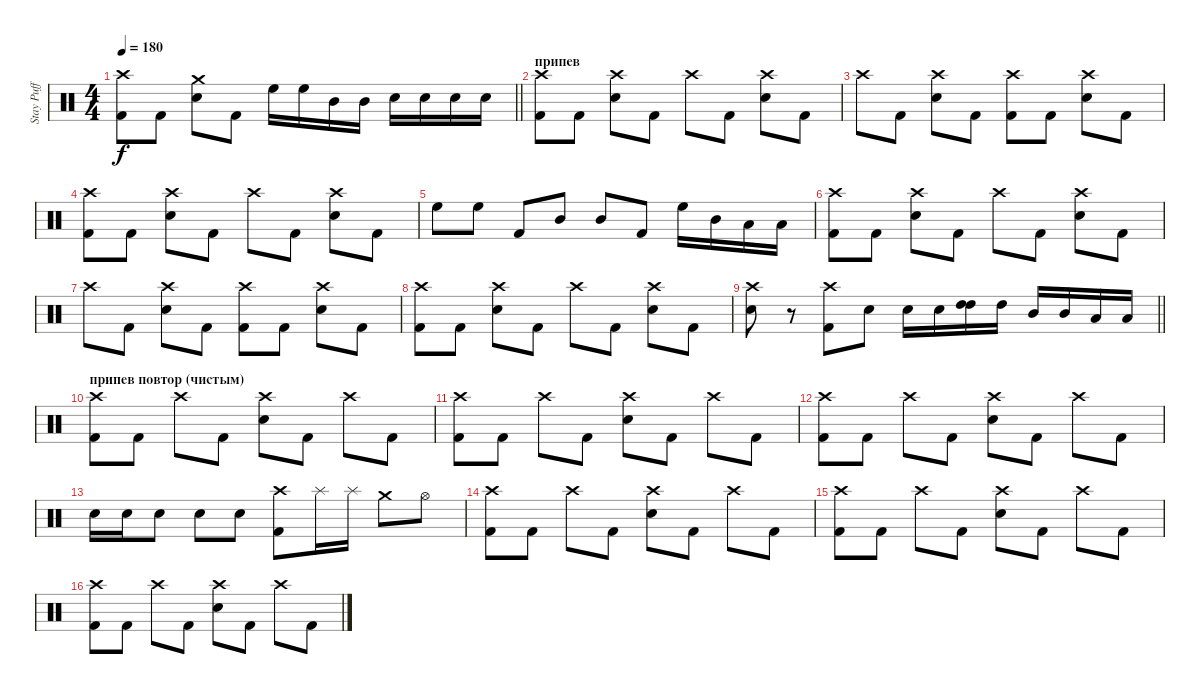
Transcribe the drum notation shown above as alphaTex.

\track ("Stay Puff" "Stay Puff") {instrument percussion}
\staff {score}
\articulation defaults
\ts (4 4)
\tempo 180
\clef neutral
\barLineRight lightlight
\ks c
("Crash high (hit)" "Kick (hit) 2").8{dy f} "Kick (hit) 2".8 ("Crash medium (hit)" "Snare (hit) 2").8 "Kick (hit) 2".8 "High Floor Tom (hit)".16 "High Floor Tom (hit)".16 "Mid Tom (hit)".16 "Mid Tom (hit)".16 "Snare (hit) 2".16 "Snare (hit) 2".16 "Snare (hit) 2".16 "Snare (hit) 2".16 |
\section ("" "припев")
("Crash high (hit)" "Kick (hit) 2").8 "Kick (hit) 2".8 ("Crash high (hit)" "Snare (hit) 2").8 "Kick (hit) 2".8 "Crash high (hit)".8 "Kick (hit) 2".8 ("Crash high (hit)" "Snare (hit) 2").8 "Kick (hit) 2".8 |
"Crash high (hit)".8 "Kick (hit) 2".8 ("Crash high (hit)" "Snare (hit) 2").8 "Kick (hit) 2".8 ("Crash high (hit)" "Kick (hit) 2").8 "Kick (hit) 2".8 ("Crash high (hit)" "Snare (hit) 2").8 "Kick (hit) 2".8 |
("Crash high (hit)" "Kick (hit) 2").8 "Kick (hit) 2".8 ("Crash high (hit)" "Snare (hit) 2").8 "Kick (hit) 2".8 "Crash high (hit)".8 "Kick (hit) 2".8 ("Crash high (hit)" "Snare (hit) 2").8 "Kick (hit) 2".8 |
"High Floor Tom (hit)".8 "High Floor Tom (hit)".8 "Kick (hit) 2".8 "Mid Tom (hit)".8 "Mid Tom (hit)".8 "Kick (hit) 2".8 "High Floor Tom (hit)".16 "Mid Tom (hit)".16 "Low Tom (hit)".16 "Low Floor Tom (hit)".16 |
("Crash high (hit)" "Kick (hit) 2").8 "Kick (hit) 2".8 ("Crash high (hit)" "Snare (hit) 2").8 "Kick (hit) 2".8 "Crash high (hit)".8 "Kick (hit) 2".8 ("Crash high (hit)" "Snare (hit) 2").8 "Kick (hit) 2".8 |
"Crash high (hit)".8 "Kick (hit) 2".8 ("Crash high (hit)" "Snare (hit) 2").8 "Kick (hit) 2".8 ("Crash high (hit)" "Kick (hit) 2").8 "Kick (hit) 2".8 ("Crash high (hit)" "Snare (hit) 2").8 "Kick (hit) 2".8 |
("Crash high (hit)" "Kick (hit) 2").8 "Kick (hit) 2".8 ("Crash high (hit)" "Snare (hit) 2").8 "Kick (hit) 2".8 "Crash high (hit)".8 "Kick (hit) 2".8 ("Crash high (hit)" "Snare (hit) 2").8 "Kick (hit) 2".8 |
\barLineRight lightlight
("Crash high (hit)" "Snare (hit) 2").8 r.8 ("Crash high (hit)" "Kick (hit) 2").8 "Snare (hit) 2".8 "Electric Snare (hit)".16 "Electric Snare (hit)".16 ("High Tom (hit)" "High Tom (hit)").16 "High Tom (hit)".16 "Mid Tom (hit)".16 "Mid Tom (hit)".16 "Low Tom (hit)".16 "Low Tom (hit)".16 |
\section ("" "припев повтор (чистым)")
("Crash high (hit)" "Kick (hit) 2").8 "Kick (hit) 2".8 "Crash high (hit)".8 "Kick (hit) 2".8 ("Crash high (hit)" "Electric Snare (hit)").8 "Kick (hit) 2".8 "Crash high (hit)".8 "Kick (hit) 2".8 |
("Crash high (hit)" "Kick (hit) 2").8 "Kick (hit) 2".8 "Crash high (hit)".8 "Kick (hit) 2".8 ("Crash high (hit)" "Electric Snare (hit)").8 "Kick (hit) 2".8 "Crash high (hit)".8 "Kick (hit) 2".8 |
("Crash high (hit)" "Kick (hit) 2").8 "Kick (hit) 2".8 "Crash high (hit)".8 "Kick (hit) 2".8 ("Crash high (hit)" "Electric Snare (hit)").8 "Kick (hit) 2".8 "Crash high (hit)".8 "Kick (hit) 2".8 |
"Electric Snare (hit)".16 "Electric Snare (hit)".16 "Electric Snare (hit)".8 "Electric Snare (hit)".8 "Electric Snare (hit)".8 ("Crash high (hit)" "Kick (hit) 2").8 "Splash (hit)".16 "Splash (hit)".16 "Crash medium (hit)".8 "Hi-Hat (open)".8 |
("Crash high (hit)" "Kick (hit) 2").8 "Kick (hit) 2".8 "Crash high (hit)".8 "Kick (hit) 2".8 ("Crash high (hit)" "Electric Snare (hit)").8 "Kick (hit) 2".8 "Crash high (hit)".8 "Kick (hit) 2".8 |
("Crash high (hit)" "Kick (hit) 2").8 "Kick (hit) 2".8 "Crash high (hit)".8 "Kick (hit) 2".8 ("Crash high (hit)" "Electric Snare (hit)").8 "Kick (hit) 2".8 "Crash high (hit)".8 "Kick (hit) 2".8 |
("Crash high (hit)" "Kick (hit) 2").8 "Kick (hit) 2".8 "Crash high (hit)".8 "Kick (hit) 2".8 ("Crash high (hit)" "Electric Snare (hit)").8 "Kick (hit) 2".8 "Crash high (hit)".8 "Kick (hit) 2".8
